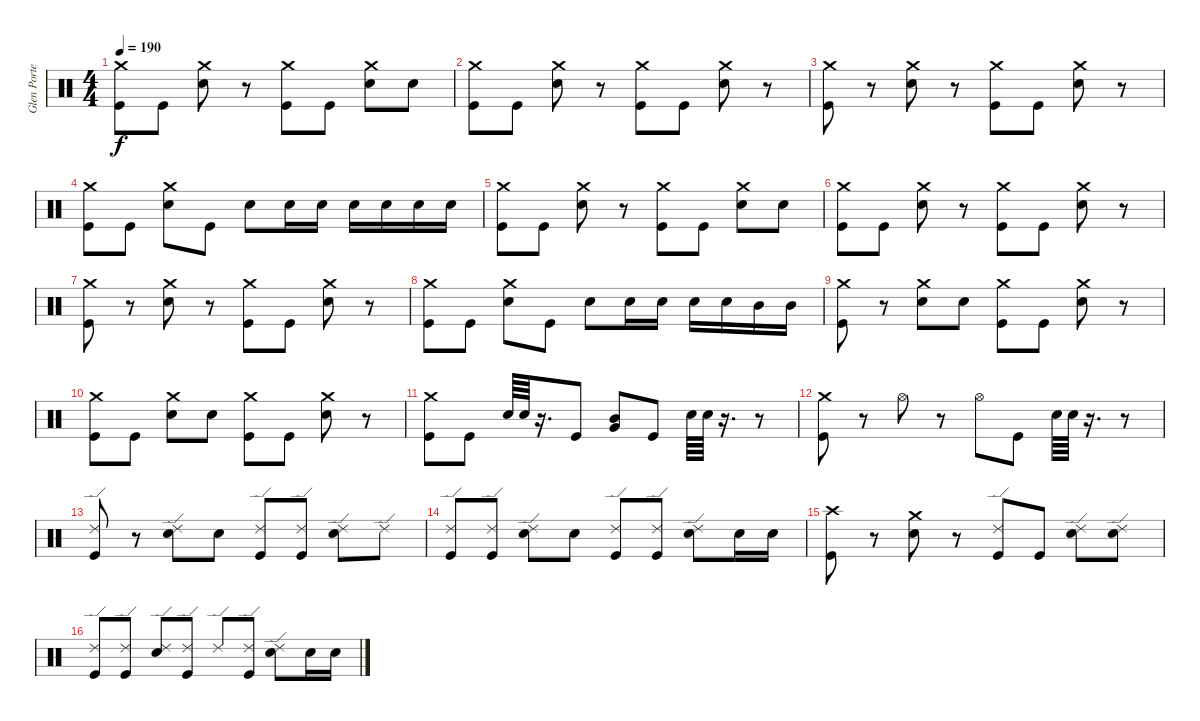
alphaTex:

\track ("Glen Porter" "Glen Porte") {instrument percussion}
\staff {score}
\articulation defaults
\ts (4 4)
\tempo 190
\clef neutral
\ks c
("Crash medium (hit)" "Kick (hit)").8{dy f} "Kick (hit)".8 ("Crash medium (hit)" "Snare (hit) 2").8 r.8 ("Crash medium (hit)" "Kick (hit)").8 "Kick (hit)".8 ("Crash medium (hit)" "Snare (hit) 2").8 "Snare (hit) 2".8 |
("Crash medium (hit)" "Kick (hit)").8 "Kick (hit)".8 ("Crash medium (hit)" "Snare (hit) 2").8 r.8 ("Crash medium (hit)" "Kick (hit)").8 "Kick (hit)".8 ("Crash medium (hit)" "Snare (hit) 2").8 r.8 |
("Crash medium (hit)" "Kick (hit)").8 r.8 ("Crash medium (hit)" "Snare (hit) 2").8 r.8 ("Crash medium (hit)" "Kick (hit)").8 "Kick (hit)".8 ("Crash medium (hit)" "Snare (hit) 2").8 r.8 |
("Crash medium (hit)" "Kick (hit)").8 "Kick (hit)".8 ("Crash medium (hit)" "Snare (hit) 2").8 "Kick (hit)".8 "Snare (hit) 2".8 "Snare (hit) 2".16 "Snare (hit) 2".16 "Snare (hit) 2".16 "Snare (hit) 2".16 "Snare (hit) 2".16 "Snare (hit) 2".16 |
("Crash medium (hit)" "Kick (hit)").8 "Kick (hit)".8 ("Crash medium (hit)" "Snare (hit) 2").8 r.8 ("Crash medium (hit)" "Kick (hit)").8 "Kick (hit)".8 ("Crash medium (hit)" "Snare (hit) 2").8 "Snare (hit) 2".8 |
("Crash medium (hit)" "Kick (hit)").8 "Kick (hit)".8 ("Crash medium (hit)" "Snare (hit) 2").8 r.8 ("Crash medium (hit)" "Kick (hit)").8 "Kick (hit)".8 ("Crash medium (hit)" "Snare (hit) 2").8 r.8 |
("Crash medium (hit)" "Kick (hit)").8 r.8 ("Crash medium (hit)" "Snare (hit) 2").8 r.8 ("Crash medium (hit)" "Kick (hit)").8 "Kick (hit)".8 ("Crash medium (hit)" "Snare (hit) 2").8 r.8 |
("Crash medium (hit)" "Kick (hit)").8 "Kick (hit)".8 ("Crash medium (hit)" "Snare (hit) 2").8 "Kick (hit)".8 "Snare (hit) 2".8 "Snare (hit) 2".16 "Snare (hit) 2".16 "Snare (hit) 2".16 "Snare (hit) 2".16 "Mid Tom (hit)".16 "Mid Tom (hit)".16 |
("Crash medium (hit)" "Kick (hit)").8 r.8 ("Crash medium (hit)" "Snare (hit) 2").8 "Snare (hit) 2".8 ("Crash medium (hit)" "Kick (hit)").8 "Kick (hit)".8 ("Crash medium (hit)" "Snare (hit) 2").8 r.8 |
("Crash medium (hit)" "Kick (hit)").8 "Kick (hit)".8 ("Crash medium (hit)" "Snare (hit) 2").8 "Snare (hit) 2".8 ("Crash medium (hit)" "Kick (hit)").8 "Kick (hit)".8 ("Crash medium (hit)" "Snare (hit) 2").8 r.8 |
("Crash medium (hit)" "Kick (hit)").8 "Kick (hit)".8 "Snare (hit) 2".64 "Snare (hit) 2".64 r.16{d} "Kick (hit)".8 ("Mid Tom (hit)" "Very Low Tom (hit)").8 "Kick (hit)".8 "Snare (hit) 2".64 "Snare (hit) 2".64 r.16{d} r.8 |
("Crash medium (hit)" "Kick (hit)").8 r.8 "Hi-Hat (open)".8 r.8 "Hi-Hat (open)".8 "Kick (hit)".8 "Snare (hit) 2".64 "Snare (hit) 2".64 r.16{d} r.8 |
("Ride (edge) 2" "Kick (hit)").8 r.8 ("Ride (edge) 2" "Snare (hit) 2").8 "Snare (hit) 2".8 ("Ride (edge) 2" "Kick (hit)").8 ("Ride (edge) 2" "Kick (hit)").8 ("Ride (edge) 2" "Snare (hit) 2").8 "Ride (edge) 2".8 |
("Ride (edge) 2" "Kick (hit)").8 ("Ride (edge) 2" "Kick (hit)").8 ("Ride (edge) 2" "Snare (hit) 2").8 "Snare (hit) 2".8 ("Ride (edge) 2" "Kick (hit)").8 ("Ride (edge) 2" "Kick (hit)").8 ("Ride (edge) 2" "Snare (hit) 2").8 "Snare (hit) 2".16 "Snare (hit) 2".16 |
("Crash high (hit)" "Kick (hit)").8 r.8 ("Crash medium (hit)" "Snare (hit) 2").8 r.8 ("Ride (edge) 2" "Kick (hit)").8 "Kick (hit)".8 ("Ride (edge) 2" "Snare (hit) 2").8 ("Ride (edge) 2" "Snare (hit) 2").8 |
("Ride (edge) 2" "Kick (hit)").8 ("Ride (edge) 2" "Kick (hit)").8 ("Ride (edge) 2" "Snare (hit) 2").8 ("Ride (edge) 2" "Kick (hit)").8 "Ride (edge) 2".8 ("Ride (edge) 2" "Kick (hit)").8 ("Ride (edge) 2" "Snare (hit) 2").8 "Snare (hit) 2".16 "Snare (hit) 2".16
